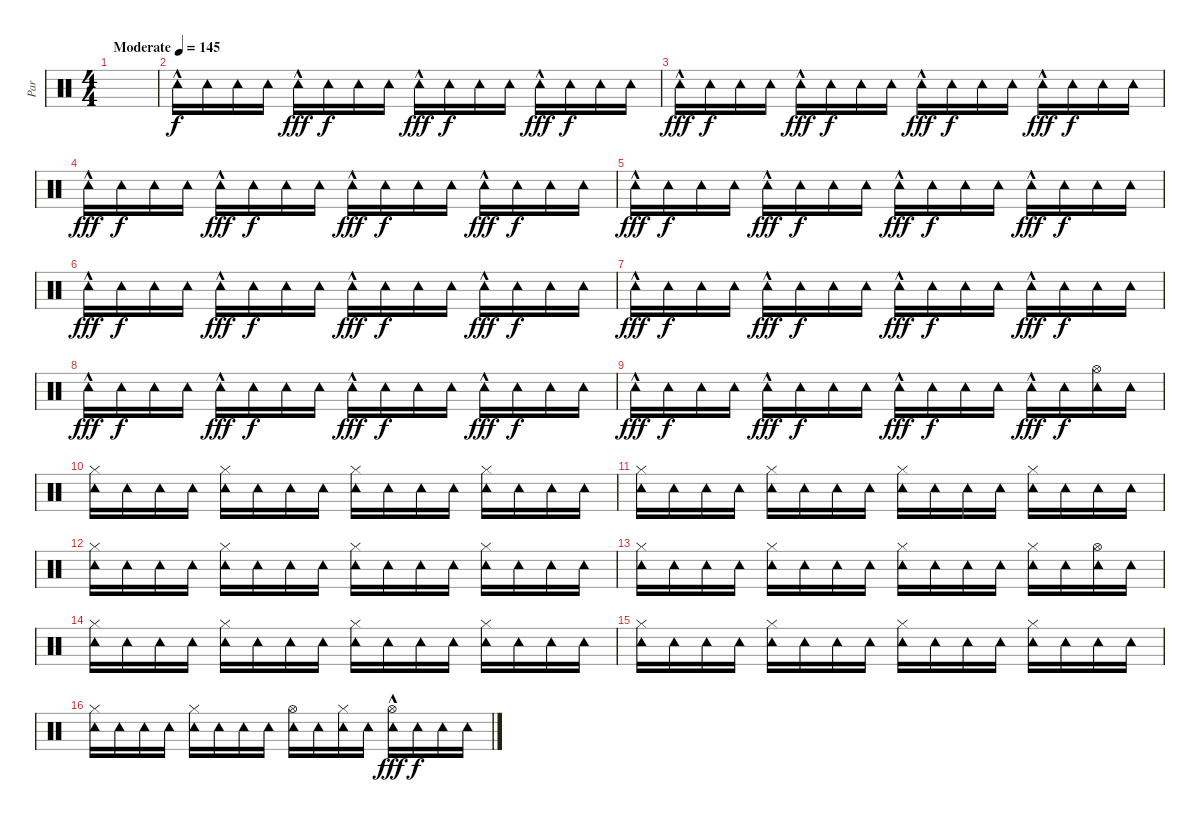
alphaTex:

\track ("Par" "Par") {instrument percussion}
\staff {score}
\articulation defaults
\ts (4 4)
\tempo (145 "Moderate")
\clef neutral
\ks c
|
"Tambourine (hit)"{hac}.16 "Tambourine (hit)".16{dy f} "Tambourine (hit)".16 "Tambourine (hit)".16 "Tambourine (hit)"{hac}.16{dy fff} "Tambourine (hit)".16{dy f} "Tambourine (hit)".16 "Tambourine (hit)".16 "Tambourine (hit)"{hac}.16{dy fff} "Tambourine (hit)".16{dy f} "Tambourine (hit)".16 "Tambourine (hit)".16 "Tambourine (hit)"{hac}.16{dy fff} "Tambourine (hit)".16{dy f} "Tambourine (hit)".16 "Tambourine (hit)".16 |
"Tambourine (hit)"{hac}.16{dy fff} "Tambourine (hit)".16{dy f} "Tambourine (hit)".16 "Tambourine (hit)".16 "Tambourine (hit)"{hac}.16{dy fff} "Tambourine (hit)".16{dy f} "Tambourine (hit)".16 "Tambourine (hit)".16 "Tambourine (hit)"{hac}.16{dy fff} "Tambourine (hit)".16{dy f} "Tambourine (hit)".16 "Tambourine (hit)".16 "Tambourine (hit)"{hac}.16{dy fff} "Tambourine (hit)".16{dy f} "Tambourine (hit)".16 "Tambourine (hit)".16 |
"Tambourine (hit)"{hac}.16{dy fff} "Tambourine (hit)".16{dy f} "Tambourine (hit)".16 "Tambourine (hit)".16 "Tambourine (hit)"{hac}.16{dy fff} "Tambourine (hit)".16{dy f} "Tambourine (hit)".16 "Tambourine (hit)".16 "Tambourine (hit)"{hac}.16{dy fff} "Tambourine (hit)".16{dy f} "Tambourine (hit)".16 "Tambourine (hit)".16 "Tambourine (hit)"{hac}.16{dy fff} "Tambourine (hit)".16{dy f} "Tambourine (hit)".16 "Tambourine (hit)".16 |
"Tambourine (hit)"{hac}.16{dy fff} "Tambourine (hit)".16{dy f} "Tambourine (hit)".16 "Tambourine (hit)".16 "Tambourine (hit)"{hac}.16{dy fff} "Tambourine (hit)".16{dy f} "Tambourine (hit)".16 "Tambourine (hit)".16 "Tambourine (hit)"{hac}.16{dy fff} "Tambourine (hit)".16{dy f} "Tambourine (hit)".16 "Tambourine (hit)".16 "Tambourine (hit)"{hac}.16{dy fff} "Tambourine (hit)".16{dy f} "Tambourine (hit)".16 "Tambourine (hit)".16 |
"Tambourine (hit)"{hac}.16{dy fff} "Tambourine (hit)".16{dy f} "Tambourine (hit)".16 "Tambourine (hit)".16 "Tambourine (hit)"{hac}.16{dy fff} "Tambourine (hit)".16{dy f} "Tambourine (hit)".16 "Tambourine (hit)".16 "Tambourine (hit)"{hac}.16{dy fff} "Tambourine (hit)".16{dy f} "Tambourine (hit)".16 "Tambourine (hit)".16 "Tambourine (hit)"{hac}.16{dy fff} "Tambourine (hit)".16{dy f} "Tambourine (hit)".16 "Tambourine (hit)".16 |
"Tambourine (hit)"{hac}.16{dy fff} "Tambourine (hit)".16{dy f} "Tambourine (hit)".16 "Tambourine (hit)".16 "Tambourine (hit)"{hac}.16{dy fff} "Tambourine (hit)".16{dy f} "Tambourine (hit)".16 "Tambourine (hit)".16 "Tambourine (hit)"{hac}.16{dy fff} "Tambourine (hit)".16{dy f} "Tambourine (hit)".16 "Tambourine (hit)".16 "Tambourine (hit)"{hac}.16{dy fff} "Tambourine (hit)".16{dy f} "Tambourine (hit)".16 "Tambourine (hit)".16 |
"Tambourine (hit)"{hac}.16{dy fff} "Tambourine (hit)".16{dy f} "Tambourine (hit)".16 "Tambourine (hit)".16 "Tambourine (hit)"{hac}.16{dy fff} "Tambourine (hit)".16{dy f} "Tambourine (hit)".16 "Tambourine (hit)".16 "Tambourine (hit)"{hac}.16{dy fff} "Tambourine (hit)".16{dy f} "Tambourine (hit)".16 "Tambourine (hit)".16 "Tambourine (hit)"{hac}.16{dy fff} "Tambourine (hit)".16{dy f} "Tambourine (hit)".16 "Tambourine (hit)".16 |
"Tambourine (hit)"{hac}.16{dy fff} "Tambourine (hit)".16{dy f} "Tambourine (hit)".16 "Tambourine (hit)".16 "Tambourine (hit)"{hac}.16{dy fff} "Tambourine (hit)".16{dy f} "Tambourine (hit)".16 "Tambourine (hit)".16 "Tambourine (hit)"{hac}.16{dy fff} "Tambourine (hit)".16{dy f} "Tambourine (hit)".16 "Tambourine (hit)".16 "Tambourine (hit)"{hac}.16{dy fff} "Tambourine (hit)".16{dy f} ("Tambourine (hit)" "Hi-Hat (open)").16 "Tambourine (hit)".16 |
("Tambourine (hit)" "Hi-Hat (closed)").16 "Tambourine (hit)".16 "Tambourine (hit)".16 "Tambourine (hit)".16 ("Tambourine (hit)" "Hi-Hat (closed)").16 "Tambourine (hit)".16 "Tambourine (hit)".16 "Tambourine (hit)".16 ("Tambourine (hit)" "Hi-Hat (closed)").16 "Tambourine (hit)".16 "Tambourine (hit)".16 "Tambourine (hit)".16 ("Tambourine (hit)" "Hi-Hat (closed)").16 "Tambourine (hit)".16 "Tambourine (hit)".16 "Tambourine (hit)".16 |
("Tambourine (hit)" "Hi-Hat (closed)").16 "Tambourine (hit)".16 "Tambourine (hit)".16 "Tambourine (hit)".16 ("Tambourine (hit)" "Hi-Hat (closed)").16 "Tambourine (hit)".16 "Tambourine (hit)".16 "Tambourine (hit)".16 ("Tambourine (hit)" "Hi-Hat (closed)").16 "Tambourine (hit)".16 "Tambourine (hit)".16 "Tambourine (hit)".16 ("Tambourine (hit)" "Hi-Hat (closed)").16 "Tambourine (hit)".16 "Tambourine (hit)".16 "Tambourine (hit)".16 |
("Tambourine (hit)" "Hi-Hat (closed)").16 "Tambourine (hit)".16 "Tambourine (hit)".16 "Tambourine (hit)".16 ("Tambourine (hit)" "Hi-Hat (closed)").16 "Tambourine (hit)".16 "Tambourine (hit)".16 "Tambourine (hit)".16 ("Tambourine (hit)" "Hi-Hat (closed)").16 "Tambourine (hit)".16 "Tambourine (hit)".16 "Tambourine (hit)".16 ("Tambourine (hit)" "Hi-Hat (closed)").16 "Tambourine (hit)".16 "Tambourine (hit)".16 "Tambourine (hit)".16 |
("Tambourine (hit)" "Hi-Hat (closed)").16 "Tambourine (hit)".16 "Tambourine (hit)".16 "Tambourine (hit)".16 ("Tambourine (hit)" "Hi-Hat (closed)").16 "Tambourine (hit)".16 "Tambourine (hit)".16 "Tambourine (hit)".16 ("Tambourine (hit)" "Hi-Hat (closed)").16 "Tambourine (hit)".16 "Tambourine (hit)".16 "Tambourine (hit)".16 ("Tambourine (hit)" "Hi-Hat (closed)").16 "Tambourine (hit)".16 ("Tambourine (hit)" "Hi-Hat (open)").16 "Tambourine (hit)".16 |
("Tambourine (hit)" "Hi-Hat (closed)").16 "Tambourine (hit)".16 "Tambourine (hit)".16 "Tambourine (hit)".16 ("Tambourine (hit)" "Hi-Hat (closed)").16 "Tambourine (hit)".16 "Tambourine (hit)".16 "Tambourine (hit)".16 ("Tambourine (hit)" "Hi-Hat (closed)").16 "Tambourine (hit)".16 "Tambourine (hit)".16 "Tambourine (hit)".16 ("Tambourine (hit)" "Hi-Hat (closed)").16 "Tambourine (hit)".16 "Tambourine (hit)".16 "Tambourine (hit)".16 |
("Tambourine (hit)" "Hi-Hat (closed)").16 "Tambourine (hit)".16 "Tambourine (hit)".16 "Tambourine (hit)".16 ("Tambourine (hit)" "Hi-Hat (closed)").16 "Tambourine (hit)".16 "Tambourine (hit)".16 "Tambourine (hit)".16 ("Tambourine (hit)" "Hi-Hat (closed)").16 "Tambourine (hit)".16 "Tambourine (hit)".16 "Tambourine (hit)".16 ("Tambourine (hit)" "Hi-Hat (closed)").16 "Tambourine (hit)".16 "Tambourine (hit)".16 "Tambourine (hit)".16 |
("Tambourine (hit)" "Hi-Hat (closed)").16 "Tambourine (hit)".16 "Tambourine (hit)".16 "Tambourine (hit)".16 ("Tambourine (hit)" "Hi-Hat (closed)").16 "Tambourine (hit)".16 "Tambourine (hit)".16 "Tambourine (hit)".16 ("Tambourine (hit)" "Hi-Hat (open)").16 "Tambourine (hit)".16 ("Tambourine (hit)" "Hi-Hat (closed)").16 "Tambourine (hit)".16 ("Tambourine (hit)"{hac} "Hi-Hat (open)").16{dy fff} "Tambourine (hit)".16{dy f} "Tambourine (hit)".16 "Tambourine (hit)".16
